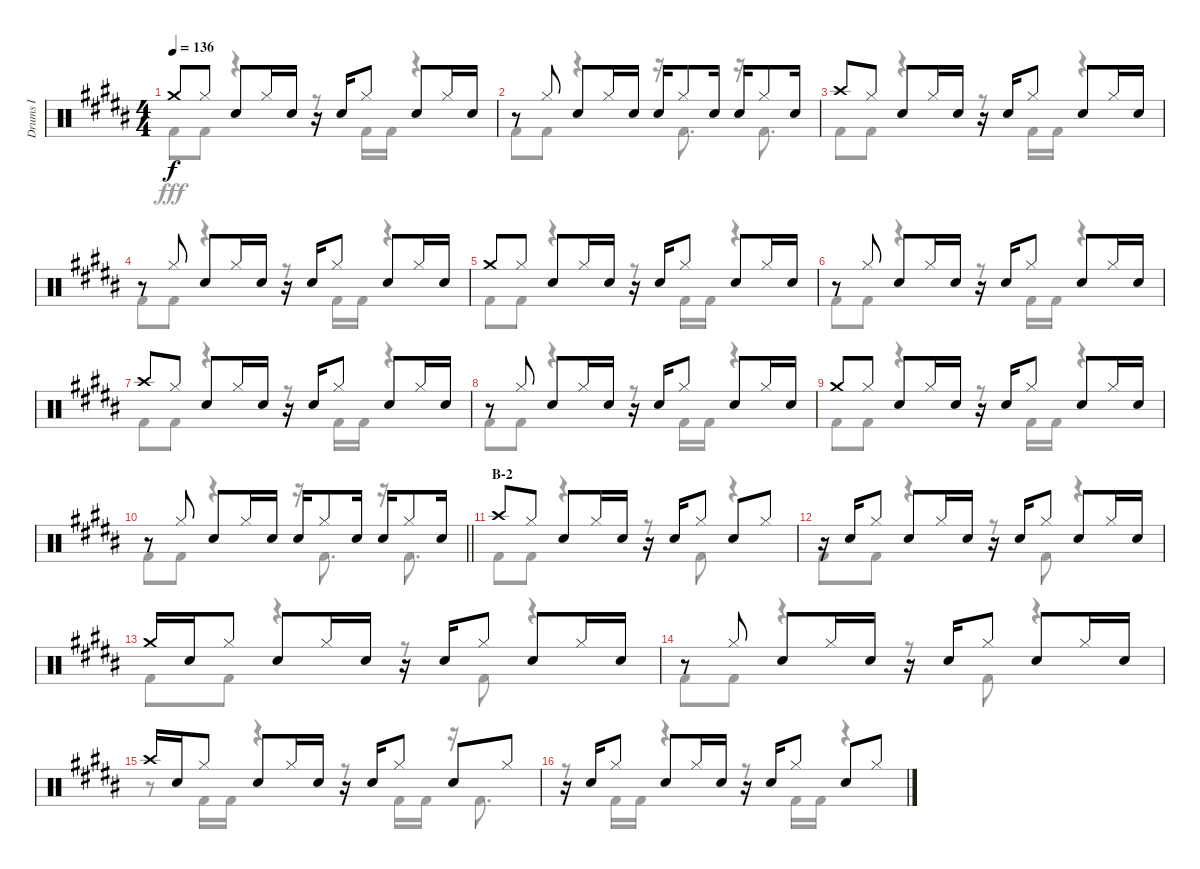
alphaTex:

\track ("Drums I" "Drums I") {instrument percussion}
\staff {score}
\articulation defaults
\voice
\ts (4 4)
\tempo 136
\clef neutral
\ks b "Crash medium (hit)".8{dy f} "Hi-Hat (closed)".8 "Snare (hit) 2".8 "Hi-Hat (closed)".16 "Snare (hit) 2".16
r.16 "Snare (hit) 2".16 "Hi-Hat (closed)".8 "Snare (hit) 2".8 "Hi-Hat (closed)".16 "Snare (hit) 2".16 |
r.8 "Hi-Hat (closed)".8 "Snare (hit) 2".8 "Hi-Hat (closed)".16 "Snare (hit) 2".16 "Snare (hit) 2".16 "Hi-Hat (closed)".8 "Snare (hit) 2".16 "Snare (hit) 2".16 "Hi-Hat (closed)".8 "Snare (hit) 2".16 |
"Crash high (hit)".8 "Hi-Hat (closed)".8 "Snare (hit) 2".8 "Hi-Hat (closed)".16 "Snare (hit) 2".16 r.16 "Snare (hit) 2".16 "Hi-Hat (closed)".8 "Snare (hit) 2".8 "Hi-Hat (closed)".16 "Snare (hit) 2".16 |
r.8 "Hi-Hat (closed)".8 "Snare (hit) 2".8 "Hi-Hat (closed)".16 "Snare (hit) 2".16 r.16 "Snare (hit) 2".16 "Hi-Hat (closed)".8 "Snare (hit) 2".8 "Hi-Hat (closed)".16 "Snare (hit) 2".16 |
"Crash medium (hit)".8 "Hi-Hat (closed)".8 "Snare (hit) 2".8 "Hi-Hat (closed)".16 "Snare (hit) 2".16 r.16 "Snare (hit) 2".16 "Hi-Hat (closed)".8 "Snare (hit) 2".8 "Hi-Hat (closed)".16 "Snare (hit) 2".16 |
r.8 "Hi-Hat (closed)".8 "Snare (hit) 2".8 "Hi-Hat (closed)".16 "Snare (hit) 2".16 r.16 "Snare (hit) 2".16 "Hi-Hat (closed)".8 "Snare (hit) 2".8 "Hi-Hat (closed)".16 "Snare (hit) 2".16 |
"Crash high (hit)".8 "Hi-Hat (closed)".8 "Snare (hit) 2".8 "Hi-Hat (closed)".16 "Snare (hit) 2".16 r.16 "Snare (hit) 2".16 "Hi-Hat (closed)".8 "Snare (hit) 2".8 "Hi-Hat (closed)".16 "Snare (hit) 2".16 |
r.8 "Hi-Hat (closed)".8 "Snare (hit) 2".8 "Hi-Hat (closed)".16 "Snare (hit) 2".16 r.16 "Snare (hit) 2".16 "Hi-Hat (closed)".8 "Snare (hit) 2".8 "Hi-Hat (closed)".16 "Snare (hit) 2".16 |
"Crash medium (hit)".8 "Hi-Hat (closed)".8 "Snare (hit) 2".8 "Hi-Hat (closed)".16 "Snare (hit) 2".16 r.16 "Snare (hit) 2".16 "Hi-Hat (closed)".8 "Snare (hit) 2".8 "Hi-Hat (closed)".16 "Snare (hit) 2".16 |
\barLineRight lightlight
r.8 "Hi-Hat (closed)".8 "Snare (hit) 2".8 "Hi-Hat (closed)".16 "Snare (hit) 2".16 "Snare (hit) 2".16 "Hi-Hat (closed)".8 "Snare (hit) 2".16 "Snare (hit) 2".16 "Hi-Hat (closed)".8 "Snare (hit) 2".16 |
\section ("" "B-2")
"Crash high (hit)".8 "Hi-Hat (closed)".8 "Snare (hit) 2".8 "Hi-Hat (closed)".16 "Snare (hit) 2".16 r.16 "Snare (hit) 2".16 "Hi-Hat (closed)".8 "Snare (hit) 2".8 "Hi-Hat (closed)".8 |
r.16 "Snare (hit) 2".16 "Hi-Hat (closed)".8 "Snare (hit) 2".8 "Hi-Hat (closed)".16 "Snare (hit) 2".16 r.16 "Snare (hit) 2".16 "Hi-Hat (closed)".8 "Snare (hit) 2".8 "Hi-Hat (closed)".16 "Snare (hit) 2".16 |
"Crash medium (hit)".16 "Snare (hit) 2".16 "Hi-Hat (closed)".8 "Snare (hit) 2".8 "Hi-Hat (closed)".16 "Snare (hit) 2".16 r.16 "Snare (hit) 2".16 "Hi-Hat (closed)".8 "Snare (hit) 2".8 "Hi-Hat (closed)".16 "Snare (hit) 2".16 |
r.8 "Hi-Hat (closed)".8 "Snare (hit) 2".8 "Hi-Hat (closed)".16 "Snare (hit) 2".16 r.16 "Snare (hit) 2".16 "Hi-Hat (closed)".8 "Snare (hit) 2".8 "Hi-Hat (closed)".16 "Snare (hit) 2".16 |
"Crash high (hit)".16 "Snare (hit) 2".16 "Hi-Hat (closed)".8 "Snare (hit) 2".8 "Hi-Hat (closed)".16 "Snare (hit) 2".16 r.16 "Snare (hit) 2".16 "Hi-Hat (closed)".8 "Snare (hit) 2".8 "Hi-Hat (closed)".8 |
r.16 "Snare (hit) 2".16 "Hi-Hat (closed)".8 "Snare (hit) 2".8 "Hi-Hat (closed)".16 "Snare (hit) 2".16 r.16 "Snare (hit) 2".16 "Hi-Hat (closed)".8 "Snare (hit) 2".8 "Hi-Hat (closed)".8
\voice
\clef neutral
\ottava regular
\simile none
\ks b "Kick (hit) 2".8{dy fff} "Kick (hit) 2".8
r.4 r.8 "Kick (hit) 2".16 "Kick (hit) 2".16 r.4 |
"Kick (hit) 2".8 "Kick (hit) 2".8 r.4 r.16 "Kick (hit) 2".8{d} r.16 "Kick (hit) 2".8{d} |
"Kick (hit) 2".8 "Kick (hit) 2".8 r.4 r.8 "Kick (hit) 2".16 "Kick (hit) 2".16 r.4 |
"Kick (hit) 2".8 "Kick (hit) 2".8 r.4 r.8 "Kick (hit) 2".16 "Kick (hit) 2".16 r.4 |
"Kick (hit) 2".8 "Kick (hit) 2".8 r.4 r.8 "Kick (hit) 2".16 "Kick (hit) 2".16 r.4 |
"Kick (hit) 2".8 "Kick (hit) 2".8 r.4 r.8 "Kick (hit) 2".16 "Kick (hit) 2".16 r.4 |
"Kick (hit) 2".8 "Kick (hit) 2".8 r.4 r.8 "Kick (hit) 2".16 "Kick (hit) 2".16 r.4 |
"Kick (hit) 2".8 "Kick (hit) 2".8 r.4 r.8 "Kick (hit) 2".16 "Kick (hit) 2".16 r.4 |
"Kick (hit) 2".8 "Kick (hit) 2".8 r.4 r.8 "Kick (hit) 2".16 "Kick (hit) 2".16 r.4 |
\barLineRight lightlight "Kick (hit) 2".8 "Kick (hit) 2".8
r.4 r.16 "Kick (hit) 2".8{d} r.16 "Kick (hit) 2".8{d} |
"Kick (hit) 2".8 "Kick (hit) 2".8 r.4 r.8 "Kick (hit) 2".8 r.4 |
"Kick (hit) 2".8 "Kick (hit) 2".8 r.4 r.8 "Kick (hit) 2".8 r.4 |
"Kick (hit) 2".8 "Kick (hit) 2".8 r.4 r.8 "Kick (hit) 2".8 r.4 |
"Kick (hit) 2".8 "Kick (hit) 2".8 r.4 r.8 "Kick (hit) 2".8 r.4 |
r.8 "Kick (hit) 2".16 "Kick (hit) 2".16 r.4 r.8 "Kick (hit) 2".16 "Kick (hit) 2".16 r.16 "Kick (hit) 2".8{d} |
r.8 "Kick (hit) 2".16 "Kick (hit) 2".16 r.4 r.8 "Kick (hit) 2".16 "Kick (hit) 2".16 r.4
